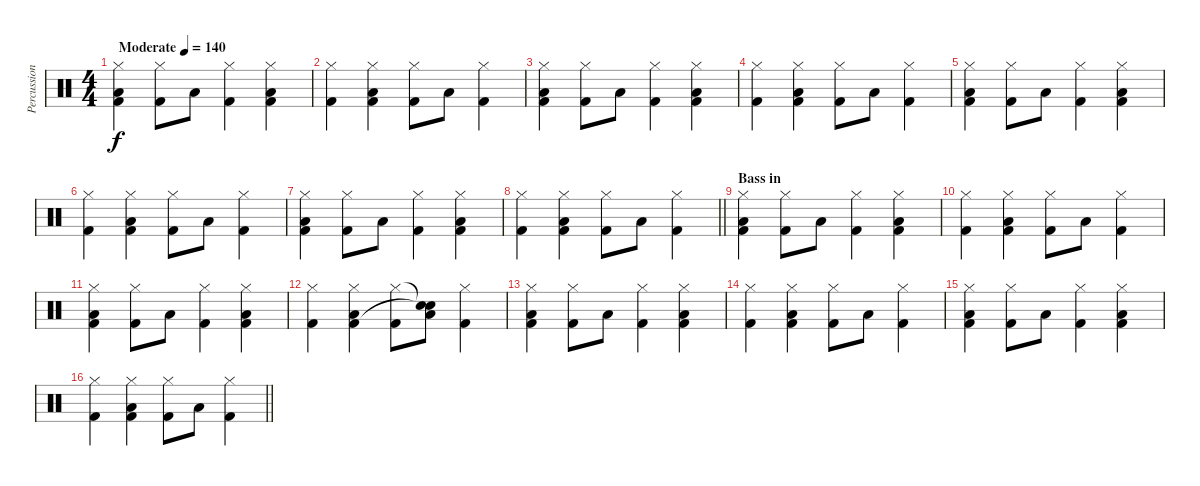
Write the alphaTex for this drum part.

\track ("Percussion" "Percussion") {instrument percussion}
\staff {score}
\articulation defaults
\ts (4 4)
\tempo (140 "Moderate")
\clef neutral
\ks c
("Hi-Hat (closed)" "Low Floor Tom (hit)" "Kick (hit) 2").4{dy f} ("Hi-Hat (closed)" "Kick (hit) 2").8 "Low Floor Tom (hit)".8 ("Hi-Hat (closed)" "Kick (hit) 2").4 ("Hi-Hat (closed)" "Low Floor Tom (hit)" "Kick (hit) 2").4 |
("Hi-Hat (closed)" "Kick (hit) 2").4 ("Hi-Hat (closed)" "Low Floor Tom (hit)" "Kick (hit) 2").4 ("Hi-Hat (closed)" "Kick (hit) 2").8 "Low Floor Tom (hit)".8 ("Hi-Hat (closed)" "Kick (hit) 2").4 |
("Hi-Hat (closed)" "Low Floor Tom (hit)" "Kick (hit) 2").4 ("Hi-Hat (closed)" "Kick (hit) 2").8 "Low Floor Tom (hit)".8 ("Hi-Hat (closed)" "Kick (hit) 2").4 ("Hi-Hat (closed)" "Low Floor Tom (hit)" "Kick (hit) 2").4 |
("Hi-Hat (closed)" "Kick (hit) 2").4 ("Hi-Hat (closed)" "Low Floor Tom (hit)" "Kick (hit) 2").4 ("Hi-Hat (closed)" "Kick (hit) 2").8 "Low Floor Tom (hit)".8 ("Hi-Hat (closed)" "Kick (hit) 2").4 |
("Hi-Hat (closed)" "Low Floor Tom (hit)" "Kick (hit) 2").4 ("Hi-Hat (closed)" "Kick (hit) 2").8 "Low Floor Tom (hit)".8 ("Hi-Hat (closed)" "Kick (hit) 2").4 ("Hi-Hat (closed)" "Low Floor Tom (hit)" "Kick (hit) 2").4 |
("Hi-Hat (closed)" "Kick (hit) 2").4 ("Hi-Hat (closed)" "Low Floor Tom (hit)" "Kick (hit) 2").4 ("Hi-Hat (closed)" "Kick (hit) 2").8 "Low Floor Tom (hit)".8 ("Hi-Hat (closed)" "Kick (hit) 2").4 |
("Hi-Hat (closed)" "Low Floor Tom (hit)" "Kick (hit) 2").4 ("Hi-Hat (closed)" "Kick (hit) 2").8 "Low Floor Tom (hit)".8 ("Hi-Hat (closed)" "Kick (hit) 2").4 ("Hi-Hat (closed)" "Low Floor Tom (hit)" "Kick (hit) 2").4 |
\barLineRight lightlight
("Hi-Hat (closed)" "Kick (hit) 2").4 ("Hi-Hat (closed)" "Low Floor Tom (hit)" "Kick (hit) 2").4 ("Hi-Hat (closed)" "Kick (hit) 2").8 "Low Floor Tom (hit)".8 ("Hi-Hat (closed)" "Kick (hit) 2").4 |
\section ("" "Bass in")
("Hi-Hat (closed)" "Low Floor Tom (hit)" "Kick (hit) 2").4 ("Hi-Hat (closed)" "Kick (hit) 2").8 "Low Floor Tom (hit)".8 ("Hi-Hat (closed)" "Kick (hit) 2").4 ("Hi-Hat (closed)" "Low Floor Tom (hit)" "Kick (hit) 2").4 |
("Hi-Hat (closed)" "Kick (hit) 2").4 ("Hi-Hat (closed)" "Low Floor Tom (hit)" "Kick (hit) 2").4 ("Hi-Hat (closed)" "Kick (hit) 2").8 "Low Floor Tom (hit)".8 ("Hi-Hat (closed)" "Kick (hit) 2").4 |
("Hi-Hat (closed)" "Low Floor Tom (hit)" "Kick (hit) 2").4 ("Hi-Hat (closed)" "Kick (hit) 2").8 "Low Floor Tom (hit)".8 ("Hi-Hat (closed)" "Kick (hit) 2").4 ("Hi-Hat (closed)" "Low Floor Tom (hit)" "Kick (hit) 2").4 |
("Hi-Hat (closed)" "Kick (hit) 2").4 ("Hi-Hat (closed)" "Low Floor Tom (hit)" "Kick (hit) 2").4 ("Hi-Hat (closed)" "Kick (hit) 2").8 ("Snare (hit)"{t} "Low Floor Tom (hit)" "Snare (hit)"{t}).8 ("Hi-Hat (closed)" "Kick (hit) 2").4 |
("Hi-Hat (closed)" "Low Floor Tom (hit)" "Kick (hit) 2").4 ("Hi-Hat (closed)" "Kick (hit) 2").8 "Low Floor Tom (hit)".8 ("Hi-Hat (closed)" "Kick (hit) 2").4 ("Hi-Hat (closed)" "Low Floor Tom (hit)" "Kick (hit) 2").4 |
("Hi-Hat (closed)" "Kick (hit) 2").4 ("Hi-Hat (closed)" "Low Floor Tom (hit)" "Kick (hit) 2").4 ("Hi-Hat (closed)" "Kick (hit) 2").8 "Low Floor Tom (hit)".8 ("Hi-Hat (closed)" "Kick (hit) 2").4 |
("Hi-Hat (closed)" "Low Floor Tom (hit)" "Kick (hit) 2").4 ("Hi-Hat (closed)" "Kick (hit) 2").8 "Low Floor Tom (hit)".8 ("Hi-Hat (closed)" "Kick (hit) 2").4 ("Hi-Hat (closed)" "Low Floor Tom (hit)" "Kick (hit) 2").4 |
\barLineRight lightlight
("Hi-Hat (closed)" "Kick (hit) 2").4 ("Hi-Hat (closed)" "Low Floor Tom (hit)" "Kick (hit) 2").4 ("Hi-Hat (closed)" "Kick (hit) 2").8 "Low Floor Tom (hit)".8 ("Hi-Hat (closed)" "Kick (hit) 2").4
